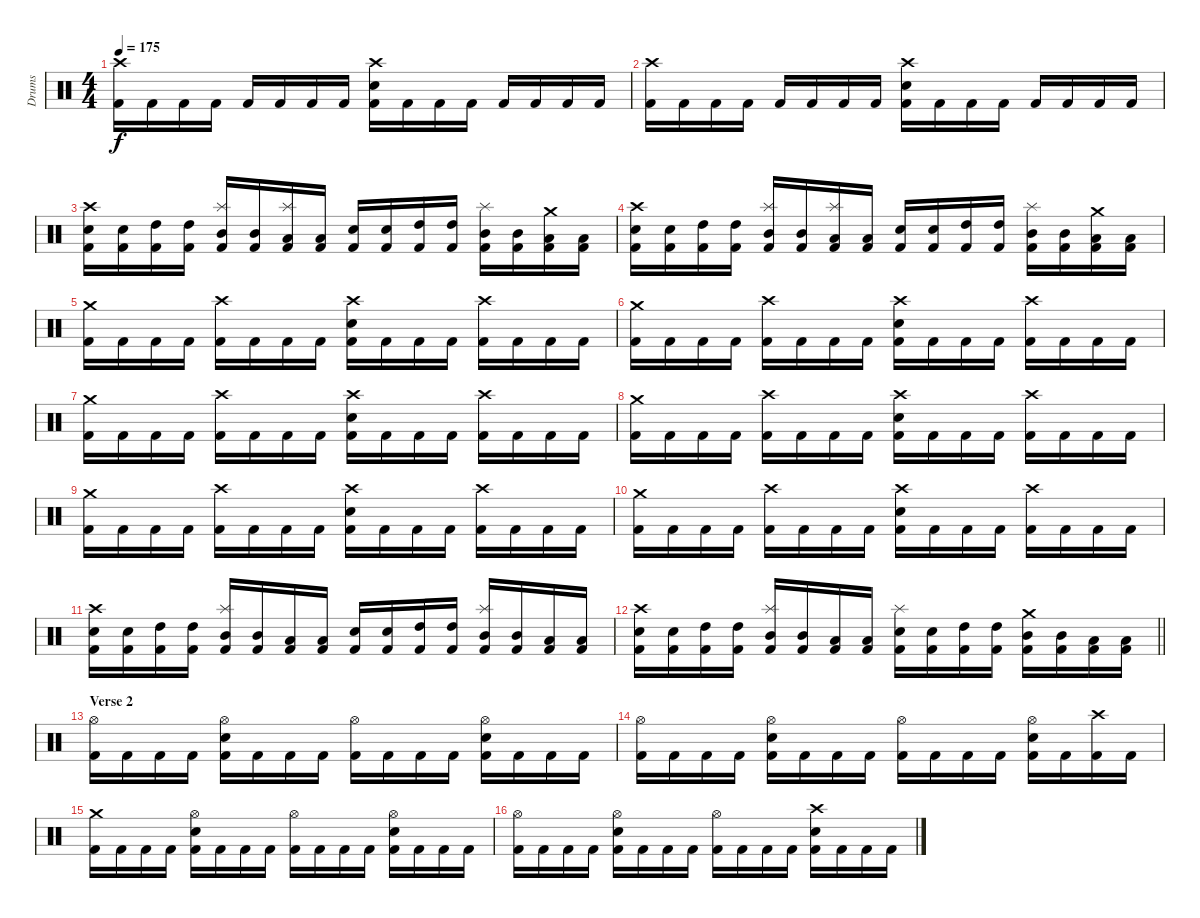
\track ("Drums" "Drums") {instrument percussion}
\staff {score}
\articulation defaults
\ts (4 4)
\tempo 175
\clef neutral
\ks c
("Crash high (hit)" "Kick (hit) 2").16{dy f} "Kick (hit) 2".16 "Kick (hit) 2".16 "Kick (hit) 2".16 "Kick (hit) 2".16 "Kick (hit) 2".16 "Kick (hit) 2".16 "Kick (hit) 2".16 ("Crash high (hit)" "Snare (hit) 2" "Kick (hit) 2").16 "Kick (hit) 2".16 "Kick (hit) 2".16 "Kick (hit) 2".16 "Kick (hit) 2".16 "Kick (hit) 2".16 "Kick (hit) 2".16 "Kick (hit) 2".16 |
("Crash high (hit)" "Kick (hit) 2").16 "Kick (hit) 2".16 "Kick (hit) 2".16 "Kick (hit) 2".16 "Kick (hit) 2".16 "Kick (hit) 2".16 "Kick (hit) 2".16 "Kick (hit) 2".16 ("Crash high (hit)" "Snare (hit) 2" "Kick (hit) 2").16 "Kick (hit) 2".16 "Kick (hit) 2".16 "Kick (hit) 2".16 "Kick (hit) 2".16 "Kick (hit) 2".16 "Kick (hit) 2".16 "Kick (hit) 2".16 |
("Crash high (hit)" "Snare (hit) 2" "Kick (hit) 2").16 ("Snare (hit) 2" "Kick (hit) 2").16 ("High Tom (hit)" "Kick (hit) 2").16 ("High Tom (hit)" "Kick (hit) 2").16 ("Splash (hit)" "Mid Tom (hit)" "Kick (hit) 2").16 ("Mid Tom (hit)" "Kick (hit) 2").16 ("Splash (hit)" "Low Tom (hit)" "Kick (hit) 2").16 ("Low Tom (hit)" "Kick (hit) 2").16 ("Snare (hit) 2" "Kick (hit) 2").16 ("Snare (hit) 2" "Kick (hit) 2").16 ("High Tom (hit)" "Kick (hit) 2").16 ("High Tom (hit)" "Kick (hit) 2").16 ("Splash (hit)" "Mid Tom (hit)" "Kick (hit) 2").16 ("Mid Tom (hit)" "Kick (hit) 2").16 ("Crash medium (hit)" "Low Tom (hit)" "Kick (hit) 2").16 ("Low Tom (hit)" "Kick (hit) 2").16 |
("Crash high (hit)" "Snare (hit) 2" "Kick (hit) 2").16 ("Snare (hit) 2" "Kick (hit) 2").16 ("High Tom (hit)" "Kick (hit) 2").16 ("High Tom (hit)" "Kick (hit) 2").16 ("Splash (hit)" "Mid Tom (hit)" "Kick (hit) 2").16 ("Mid Tom (hit)" "Kick (hit) 2").16 ("Splash (hit)" "Low Tom (hit)" "Kick (hit) 2").16 ("Low Tom (hit)" "Kick (hit) 2").16 ("Snare (hit) 2" "Kick (hit) 2").16 ("Snare (hit) 2" "Kick (hit) 2").16 ("High Tom (hit)" "Kick (hit) 2").16 ("High Tom (hit)" "Kick (hit) 2").16 ("Splash (hit)" "Mid Tom (hit)" "Kick (hit) 2").16 ("Mid Tom (hit)" "Kick (hit) 2").16 ("Crash medium (hit)" "Low Tom (hit)" "Kick (hit) 2").16 ("Low Tom (hit)" "Kick (hit) 2").16 |
("Crash medium (hit)" "Kick (hit) 2").16 "Kick (hit) 2".16 "Kick (hit) 2".16 "Kick (hit) 2".16 ("Crash high (hit)" "Kick (hit) 2").16 "Kick (hit) 2".16 "Kick (hit) 2".16 "Kick (hit) 2".16 ("Crash high (hit)" "Snare (hit) 2" "Kick (hit) 2").16 "Kick (hit) 2".16 "Kick (hit) 2".16 "Kick (hit) 2".16 ("Crash high (hit)" "Kick (hit) 2").16 "Kick (hit) 2".16 "Kick (hit) 2".16 "Kick (hit) 2".16 |
("Crash medium (hit)" "Kick (hit) 2").16 "Kick (hit) 2".16 "Kick (hit) 2".16 "Kick (hit) 2".16 ("Crash high (hit)" "Kick (hit) 2").16 "Kick (hit) 2".16 "Kick (hit) 2".16 "Kick (hit) 2".16 ("Crash high (hit)" "Snare (hit) 2" "Kick (hit) 2").16 "Kick (hit) 2".16 "Kick (hit) 2".16 "Kick (hit) 2".16 ("Crash high (hit)" "Kick (hit) 2").16 "Kick (hit) 2".16 "Kick (hit) 2".16 "Kick (hit) 2".16 |
("Crash medium (hit)" "Kick (hit) 2").16 "Kick (hit) 2".16 "Kick (hit) 2".16 "Kick (hit) 2".16 ("Crash high (hit)" "Kick (hit) 2").16 "Kick (hit) 2".16 "Kick (hit) 2".16 "Kick (hit) 2".16 ("Crash high (hit)" "Snare (hit) 2" "Kick (hit) 2").16 "Kick (hit) 2".16 "Kick (hit) 2".16 "Kick (hit) 2".16 ("Crash high (hit)" "Kick (hit) 2").16 "Kick (hit) 2".16 "Kick (hit) 2".16 "Kick (hit) 2".16 |
("Crash medium (hit)" "Kick (hit) 2").16 "Kick (hit) 2".16 "Kick (hit) 2".16 "Kick (hit) 2".16 ("Crash high (hit)" "Kick (hit) 2").16 "Kick (hit) 2".16 "Kick (hit) 2".16 "Kick (hit) 2".16 ("Crash high (hit)" "Snare (hit) 2" "Kick (hit) 2").16 "Kick (hit) 2".16 "Kick (hit) 2".16 "Kick (hit) 2".16 ("Crash high (hit)" "Kick (hit) 2").16 "Kick (hit) 2".16 "Kick (hit) 2".16 "Kick (hit) 2".16 |
("Crash medium (hit)" "Kick (hit) 2").16 "Kick (hit) 2".16 "Kick (hit) 2".16 "Kick (hit) 2".16 ("Crash high (hit)" "Kick (hit) 2").16 "Kick (hit) 2".16 "Kick (hit) 2".16 "Kick (hit) 2".16 ("Crash high (hit)" "Snare (hit) 2" "Kick (hit) 2").16 "Kick (hit) 2".16 "Kick (hit) 2".16 "Kick (hit) 2".16 ("Crash high (hit)" "Kick (hit) 2").16 "Kick (hit) 2".16 "Kick (hit) 2".16 "Kick (hit) 2".16 |
("Crash medium (hit)" "Kick (hit) 2").16 "Kick (hit) 2".16 "Kick (hit) 2".16 "Kick (hit) 2".16 ("Crash high (hit)" "Kick (hit) 2").16 "Kick (hit) 2".16 "Kick (hit) 2".16 "Kick (hit) 2".16 ("Crash high (hit)" "Snare (hit) 2" "Kick (hit) 2").16 "Kick (hit) 2".16 "Kick (hit) 2".16 "Kick (hit) 2".16 ("Crash high (hit)" "Kick (hit) 2").16 "Kick (hit) 2".16 "Kick (hit) 2".16 "Kick (hit) 2".16 |
("Crash high (hit)" "Snare (hit) 2" "Kick (hit) 2").16 ("Snare (hit) 2" "Kick (hit) 2").16 ("High Tom (hit)" "Kick (hit) 2").16 ("High Tom (hit)" "Kick (hit) 2").16 ("Splash (hit)" "Mid Tom (hit)" "Kick (hit) 2").16 ("Mid Tom (hit)" "Kick (hit) 2").16 ("Low Tom (hit)" "Kick (hit) 2").16 ("Low Tom (hit)" "Kick (hit) 2").16 ("Snare (hit) 2" "Kick (hit) 2").16 ("Snare (hit) 2" "Kick (hit) 2").16 ("High Tom (hit)" "Kick (hit) 2").16 ("High Tom (hit)" "Kick (hit) 2").16 ("Splash (hit)" "Mid Tom (hit)" "Kick (hit) 2").16 ("Mid Tom (hit)" "Kick (hit) 2").16 ("Low Tom (hit)" "Kick (hit) 2").16 ("Low Tom (hit)" "Kick (hit) 2").16 |
\barLineRight lightlight
("Crash high (hit)" "Snare (hit) 2" "Kick (hit) 2").16 ("Snare (hit) 2" "Kick (hit) 2").16 ("High Tom (hit)" "Kick (hit) 2").16 ("High Tom (hit)" "Kick (hit) 2").16 ("Splash (hit)" "Mid Tom (hit)" "Kick (hit) 2").16 ("Mid Tom (hit)" "Kick (hit) 2").16 ("Low Tom (hit)" "Kick (hit) 2").16 ("Low Tom (hit)" "Kick (hit) 2").16 ("Splash (hit)" "Snare (hit) 2" "Kick (hit) 2").16 ("Snare (hit) 2" "Kick (hit) 2").16 ("High Tom (hit)" "Kick (hit) 2").16 ("High Tom (hit)" "Kick (hit) 2").16 ("Crash medium (hit)" "Mid Tom (hit)" "Kick (hit) 2").16 ("Mid Tom (hit)" "Kick (hit) 2").16 ("Low Tom (hit)" "Kick (hit) 2").16 ("Low Tom (hit)" "Kick (hit) 2").16 |
\section ("" "Verse 2")
("Hi-Hat (open)" "Kick (hit) 2").16 "Kick (hit) 2".16 "Kick (hit) 2".16 "Kick (hit) 2".16 ("Hi-Hat (open)" "Snare (hit) 2" "Kick (hit) 2").16 "Kick (hit) 2".16 "Kick (hit) 2".16 "Kick (hit) 2".16 ("Hi-Hat (open)" "Kick (hit) 2").16 "Kick (hit) 2".16 "Kick (hit) 2".16 "Kick (hit) 2".16 ("Hi-Hat (open)" "Snare (hit) 2" "Kick (hit) 2").16 "Kick (hit) 2".16 "Kick (hit) 2".16 "Kick (hit) 2".16 |
("Hi-Hat (open)" "Kick (hit) 2").16 "Kick (hit) 2".16 "Kick (hit) 2".16 "Kick (hit) 2".16 ("Hi-Hat (open)" "Snare (hit) 2" "Kick (hit) 2").16 "Kick (hit) 2".16 "Kick (hit) 2".16 "Kick (hit) 2".16 ("Hi-Hat (open)" "Kick (hit) 2").16 "Kick (hit) 2".16 "Kick (hit) 2".16 "Kick (hit) 2".16 ("Hi-Hat (open)" "Snare (hit) 2" "Kick (hit) 2").16 "Kick (hit) 2".16 ("Crash high (hit)" "Kick (hit) 2").16 "Kick (hit) 2".16 |
("Crash medium (hit)" "Kick (hit) 2").16 "Kick (hit) 2".16 "Kick (hit) 2".16 "Kick (hit) 2".16 ("Hi-Hat (open)" "Snare (hit) 2" "Kick (hit) 2").16 "Kick (hit) 2".16 "Kick (hit) 2".16 "Kick (hit) 2".16 ("Hi-Hat (open)" "Kick (hit) 2").16 "Kick (hit) 2".16 "Kick (hit) 2".16 "Kick (hit) 2".16 ("Hi-Hat (open)" "Snare (hit) 2" "Kick (hit) 2").16 "Kick (hit) 2".16 "Kick (hit) 2".16 "Kick (hit) 2".16 |
("Hi-Hat (open)" "Kick (hit) 2").16 "Kick (hit) 2".16 "Kick (hit) 2".16 "Kick (hit) 2".16 ("Hi-Hat (open)" "Snare (hit) 2" "Kick (hit) 2").16 "Kick (hit) 2".16 "Kick (hit) 2".16 "Kick (hit) 2".16 ("Hi-Hat (open)" "Kick (hit) 2").16 "Kick (hit) 2".16 "Kick (hit) 2".16 "Kick (hit) 2".16 ("Crash high (hit)" "Snare (hit) 2" "Kick (hit) 2").16 "Kick (hit) 2".16 "Kick (hit) 2".16 "Kick (hit) 2".16
